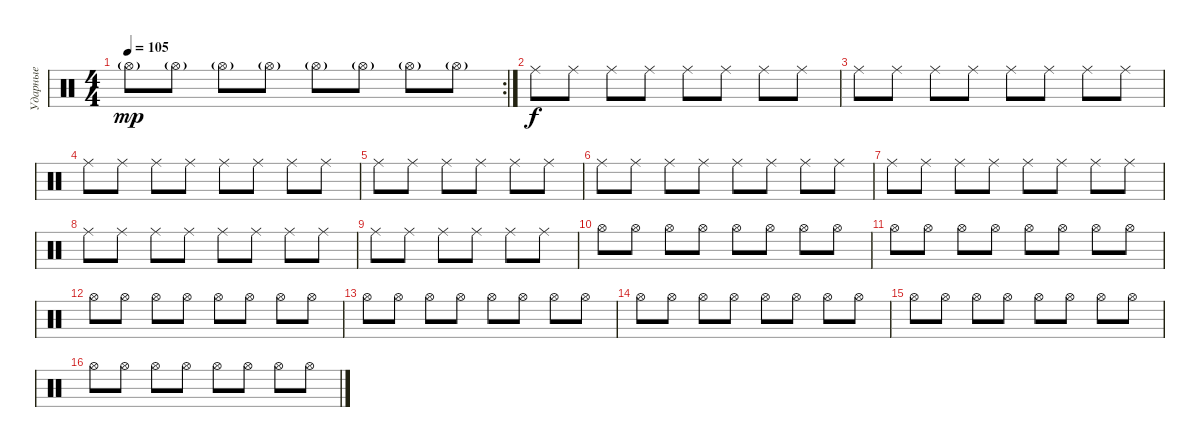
\track ("Ударные" "Ударные") {instrument percussion}
\staff {score}
\articulation defaults
\rc 2
\ts (4 4)
\tempo 105
\clef neutral
\ks c "Hi-Hat (open)"{g}.8{dy mp} "Hi-Hat (open)"{g}.8 "Hi-Hat (open)"{g}.8 "Hi-Hat (open)"{g}.8 "Hi-Hat (open)"{g}.8 "Hi-Hat (open)"{g}.8 "Hi-Hat (open)"{g}.8 "Hi-Hat (open)"{g}.8
|
"Ride (middle)".8{dy f} "Ride (middle)".8 "Ride (middle)".8 "Ride (middle)".8 "Ride (middle)".8 "Ride (middle)".8 "Ride (middle)".8 "Ride (middle)".8 |
"Ride (middle)".8 "Ride (middle)".8 "Ride (middle)".8 "Ride (middle)".8 "Ride (middle)".8 "Ride (middle)".8 "Ride (middle)".8 "Ride (middle)".8 |
"Ride (middle)".8 "Ride (middle)".8 "Ride (middle)".8 "Ride (middle)".8 "Ride (middle)".8 "Ride (middle)".8 "Ride (middle)".8 "Ride (middle)".8 |
"Ride (middle)".8 "Ride (middle)".8 "Ride (middle)".8 "Ride (middle)".8 "Ride (middle)".8 "Ride (middle)".8 |
"Ride (middle)".8 "Ride (middle)".8 "Ride (middle)".8 "Ride (middle)".8 "Ride (middle)".8 "Ride (middle)".8 "Ride (middle)".8 "Ride (middle)".8 |
"Ride (middle)".8 "Ride (middle)".8 "Ride (middle)".8 "Ride (middle)".8 "Ride (middle)".8 "Ride (middle)".8 "Ride (middle)".8 "Ride (middle)".8 |
"Ride (middle)".8 "Ride (middle)".8 "Ride (middle)".8 "Ride (middle)".8 "Ride (middle)".8 "Ride (middle)".8 "Ride (middle)".8 "Ride (middle)".8 |
"Ride (middle)".8 "Ride (middle)".8 "Ride (middle)".8 "Ride (middle)".8 "Ride (middle)".8 "Ride (middle)".8 |
"Hi-Hat (open)".8 "Hi-Hat (open)".8 "Hi-Hat (open)".8 "Hi-Hat (open)".8 "Hi-Hat (open)".8 "Hi-Hat (open)".8 "Hi-Hat (open)".8 "Hi-Hat (open)".8 |
"Hi-Hat (open)".8 "Hi-Hat (open)".8 "Hi-Hat (open)".8 "Hi-Hat (open)".8 "Hi-Hat (open)".8 "Hi-Hat (open)".8 "Hi-Hat (open)".8 "Hi-Hat (open)".8 |
"Hi-Hat (open)".8 "Hi-Hat (open)".8 "Hi-Hat (open)".8 "Hi-Hat (open)".8 "Hi-Hat (open)".8 "Hi-Hat (open)".8 "Hi-Hat (open)".8 "Hi-Hat (open)".8 |
"Hi-Hat (open)".8 "Hi-Hat (open)".8 "Hi-Hat (open)".8 "Hi-Hat (open)".8 "Hi-Hat (open)".8 "Hi-Hat (open)".8 "Hi-Hat (open)".8 "Hi-Hat (open)".8 |
"Hi-Hat (open)".8 "Hi-Hat (open)".8 "Hi-Hat (open)".8 "Hi-Hat (open)".8 "Hi-Hat (open)".8 "Hi-Hat (open)".8 "Hi-Hat (open)".8 "Hi-Hat (open)".8 |
"Hi-Hat (open)".8 "Hi-Hat (open)".8 "Hi-Hat (open)".8 "Hi-Hat (open)".8 "Hi-Hat (open)".8 "Hi-Hat (open)".8 "Hi-Hat (open)".8 "Hi-Hat (open)".8 |
"Hi-Hat (open)".8 "Hi-Hat (open)".8 "Hi-Hat (open)".8 "Hi-Hat (open)".8 "Hi-Hat (open)".8 "Hi-Hat (open)".8 "Hi-Hat (open)".8 "Hi-Hat (open)".8
